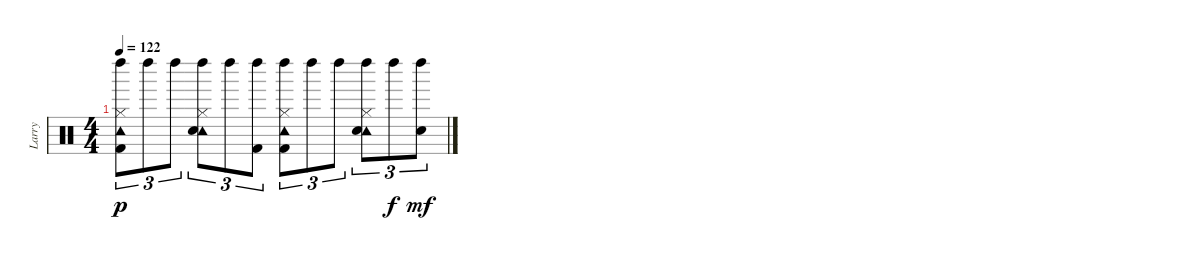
\track ("Larry" "Larry") {instrument percussion}
\staff {score}
\articulation defaults
\ts (4 4)
\tempo 122
\clef neutral
\ks c
("Left Maraca (hit)" "Tambourine (hit)" "Hi-Hat (closed)" "Kick (hit) 2").8{tu (3 2) dy p} "Left Maraca (hit)".8{tu (3 2)} "Left Maraca (hit)".8{tu (3 2)} ("Left Maraca (hit)" "Tambourine (hit)" "Hi-Hat (closed)" "Snare (hit) 2").8{tu (3 2)} "Left Maraca (hit)".8{tu (3 2)} ("Left Maraca (hit)" "Kick (hit) 2").8{tu (3 2)} ("Left Maraca (hit)" "Tambourine (hit)" "Hi-Hat (closed)" "Kick (hit) 2").8{tu (3 2)} "Left Maraca (hit)".8{tu (3 2)} "Left Maraca (hit)".8{tu (3 2)} ("Left Maraca (hit)" "Tambourine (hit)" "Hi-Hat (closed)" "Snare (hit) 2").8{tu (3 2)} "Left Maraca (hit)".8{tu (3 2) dy f} ("Left Maraca (hit)" "Snare (hit) 2").8{tu (3 2) dy mf}
